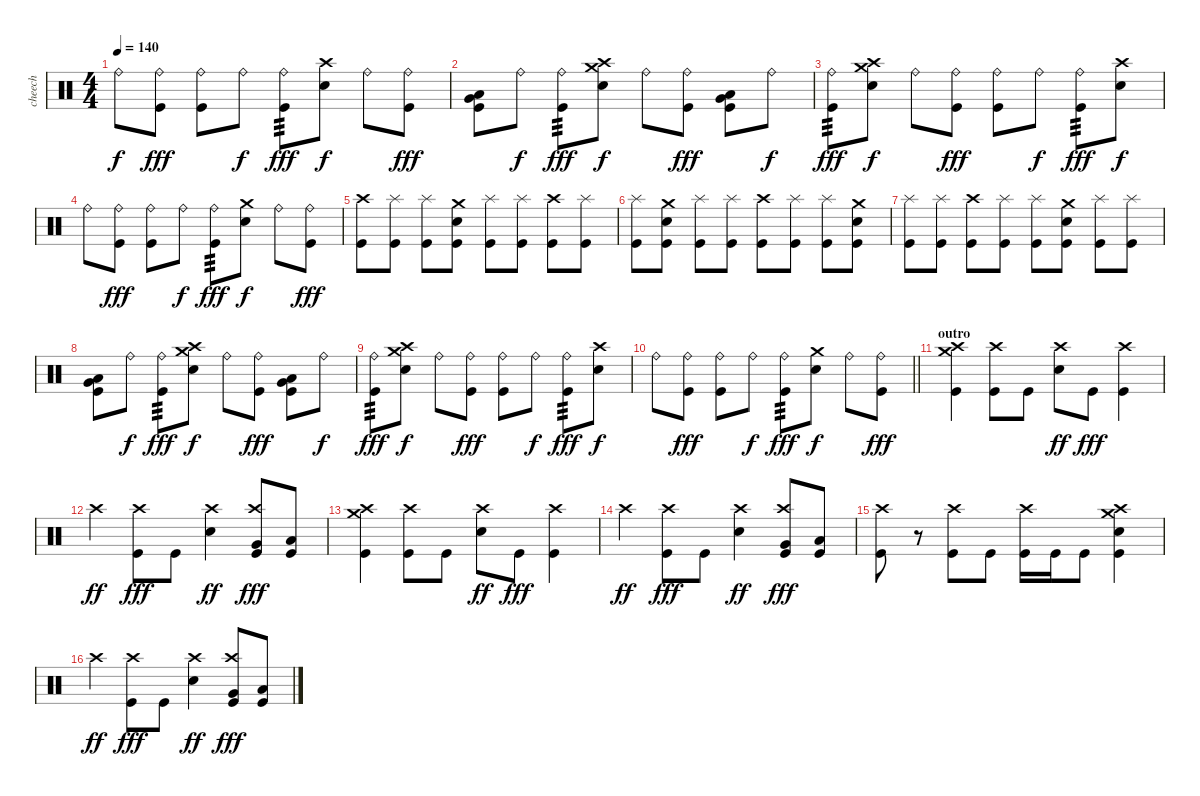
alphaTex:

\track ("cheech" "cheech") {solo instrument percussion}
\staff {score}
\articulation defaults
\ts (4 4)
\tempo 140
\clef neutral
\ks c "Ride (bell)".8{dy f}
("Ride (bell)" "Kick (hit)").8{dy fff} ("Ride (bell)" "Kick (hit)").8 "Ride (bell)".8{dy f} ("Ride (bell)" "Kick (hit)").8{tp 3 dy fff} ("Crash high (hit)" "Electric Snare (hit)").8{dy f} "Ride (bell)".8 ("Ride (bell)" "Kick (hit)").8{dy fff} |
("Very Low Tom (hit)" "Low Floor Tom (hit)" "Kick (hit)").8 "Ride (bell)".8{dy f} ("Ride (bell)" "Kick (hit)").8{tp 3 dy fff} ("Crash high (hit)" "Crash medium (hit)" "Electric Snare (hit)").8{dy f} "Ride (bell)".8 ("Ride (bell)" "Kick (hit)").8{dy fff} ("Very Low Tom (hit)" "Low Floor Tom (hit)" "Kick (hit)").8 "Ride (bell)".8{dy f} |
("Ride (bell)" "Kick (hit)").8{tp 3 dy fff} ("Crash high (hit)" "Crash medium (hit)" "Electric Snare (hit)").8{dy f} "Ride (bell)".8 ("Ride (bell)" "Kick (hit)").8{dy fff} ("Ride (bell)" "Kick (hit)").8 "Ride (bell)".8{dy f} ("Ride (bell)" "Kick (hit)").8{tp 3 dy fff} ("Crash high (hit)" "Electric Snare (hit)").8{dy f} |
"Ride (bell)".8 ("Ride (bell)" "Kick (hit)").8{dy fff} ("Ride (bell)" "Kick (hit)").8 "Ride (bell)".8{dy f} ("Ride (bell)" "Kick (hit)").8{tp 3 dy fff} ("Crash medium (hit)" "Electric Snare (hit)").8{dy f} "Ride (bell)".8 ("Ride (bell)" "Kick (hit)").8{dy fff} |
("Crash high (hit)" "Kick (hit)").8 ("Splash (hit)" "Kick (hit)").8 ("Splash (hit)" "Kick (hit)").8 ("Crash medium (hit)" "Electric Snare (hit)" "Kick (hit)").8 ("Splash (hit)" "Kick (hit)").8 ("Splash (hit)" "Kick (hit)").8 ("Crash high (hit)" "Kick (hit)").8 ("Splash (hit)" "Kick (hit)").8 |
("Splash (hit)" "Kick (hit)").8 ("Crash medium (hit)" "Electric Snare (hit)" "Kick (hit)").8 ("Splash (hit)" "Kick (hit)").8 ("Splash (hit)" "Kick (hit)").8 ("Crash high (hit)" "Kick (hit)").8 ("Splash (hit)" "Kick (hit)").8 ("Splash (hit)" "Kick (hit)").8 ("Crash medium (hit)" "Electric Snare (hit)" "Kick (hit)").8 |
("Splash (hit)" "Kick (hit)").8 ("Splash (hit)" "Kick (hit)").8 ("Crash high (hit)" "Kick (hit)").8 ("Splash (hit)" "Kick (hit)").8 ("Splash (hit)" "Kick (hit)").8 ("Crash medium (hit)" "Electric Snare (hit)" "Kick (hit)").8 ("Splash (hit)" "Kick (hit)").8 ("Splash (hit)" "Kick (hit)").8 |
("Very Low Tom (hit)" "Low Floor Tom (hit)" "Kick (hit)").8 "Ride (bell)".8{dy f} ("Ride (bell)" "Kick (hit)").8{tp 3 dy fff} ("Crash high (hit)" "Crash medium (hit)" "Electric Snare (hit)").8{dy f} "Ride (bell)".8 ("Ride (bell)" "Kick (hit)").8{dy fff} ("Very Low Tom (hit)" "Low Floor Tom (hit)" "Kick (hit)").8 "Ride (bell)".8{dy f} |
("Ride (bell)" "Kick (hit)").8{tp 3 dy fff} ("Crash high (hit)" "Crash medium (hit)" "Electric Snare (hit)").8{dy f} "Ride (bell)".8 ("Ride (bell)" "Kick (hit)").8{dy fff} ("Ride (bell)" "Kick (hit)").8 "Ride (bell)".8{dy f} ("Ride (bell)" "Kick (hit)").8{tp 3 dy fff} ("Crash high (hit)" "Electric Snare (hit)").8{dy f} |
\barLineRight lightlight "Ride (bell)".8
("Ride (bell)" "Kick (hit)").8{dy fff} ("Ride (bell)" "Kick (hit)").8 "Ride (bell)".8{dy f} ("Ride (bell)" "Kick (hit)").8{tp 3 dy fff} ("Crash medium (hit)" "Electric Snare (hit)").8{dy f} "Ride (bell)".8 ("Ride (bell)" "Kick (hit)").8{dy fff} |
\section ("" "outro")
("Crash high (hit)" "Crash medium (hit)" "Kick (hit)").4 ("Crash high (hit)" "Kick (hit)").8 "Kick (hit)".8 ("Crash high (hit)" "Electric Snare (hit)").8{dy ff} "Kick (hit)".8{dy fff} ("Crash high (hit)" "Kick (hit)").4 |
"Crash high (hit)".4{dy ff} ("Crash high (hit)" "Kick (hit)").8{dy fff} "Kick (hit)".8 ("Crash high (hit)" "Electric Snare (hit)").4{dy ff} ("Crash high (hit)" "Very Low Tom (hit)" "Kick (hit)").8{dy fff} ("Low Floor Tom (hit)" "Kick (hit)").8 |
("Crash high (hit)" "Crash medium (hit)" "Kick (hit)").4 ("Crash high (hit)" "Kick (hit)").8 "Kick (hit)".8 ("Crash high (hit)" "Electric Snare (hit)").8{dy ff} "Kick (hit)".8{dy fff} ("Crash high (hit)" "Kick (hit)").4 |
"Crash high (hit)".4{dy ff} ("Crash high (hit)" "Kick (hit)").8{dy fff} "Kick (hit)".8 ("Crash high (hit)" "Electric Snare (hit)").4{dy ff} ("Crash high (hit)" "Very Low Tom (hit)" "Kick (hit)").8{dy fff} ("Low Floor Tom (hit)" "Kick (hit)").8 |
("Crash high (hit)" "Kick (hit)").8 r.8 ("Crash high (hit)" "Kick (hit)").8 "Kick (hit)".8 ("Crash high (hit)" "Kick (hit)").16 "Kick (hit)".16 "Kick (hit)".8 ("Crash high (hit)" "Crash medium (hit)" "Electric Snare (hit)" "Kick (hit)").4 |
"Crash high (hit)".4{dy ff} ("Crash high (hit)" "Kick (hit)").8{dy fff} "Kick (hit)".8 ("Crash high (hit)" "Electric Snare (hit)").4{dy ff} ("Crash high (hit)" "Very Low Tom (hit)" "Kick (hit)").8{dy fff} ("Low Floor Tom (hit)" "Kick (hit)").8
